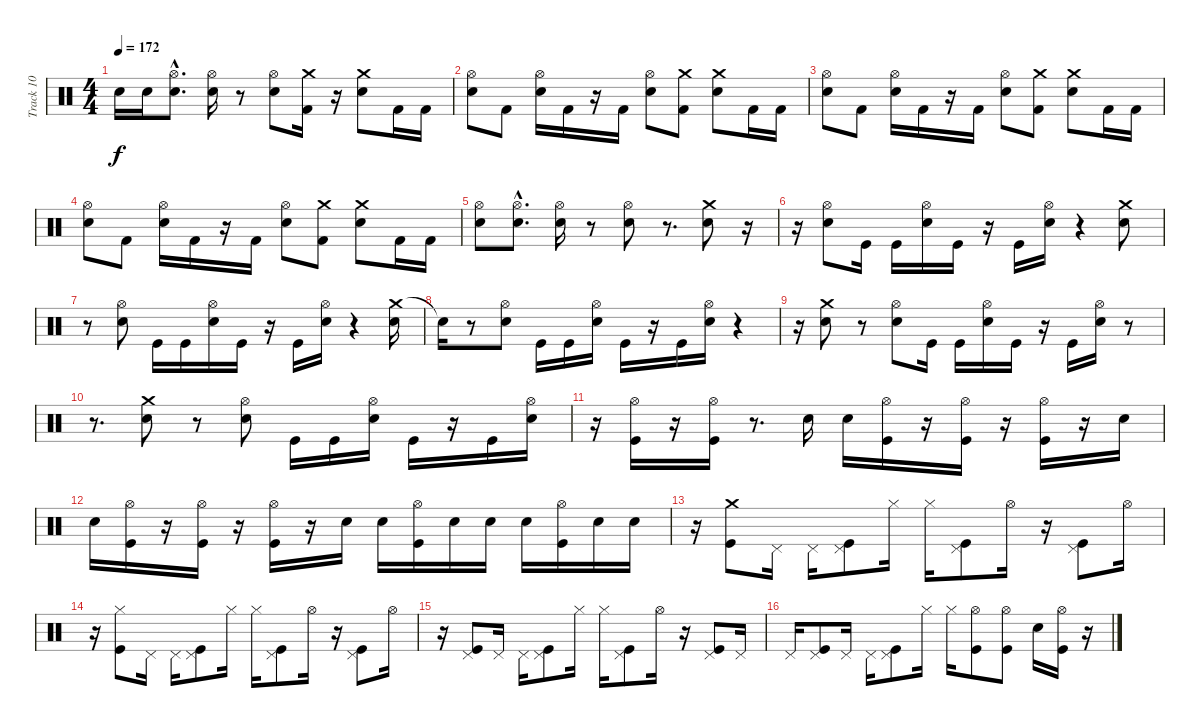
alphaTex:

\track ("Track 10" "Track 10") {instrument percussion}
\staff {score}
\articulation defaults
\ts (4 4)
\tempo 172
\clef neutral
\ks c "Electric Snare (hit)".16{dy f} "Electric Snare (hit)".16
("Hi-Hat (open)" "Electric Snare (hit)"{hac}).8{d} ("Hi-Hat (open)" "Electric Snare (hit)").16 r.8 ("Hi-Hat (open)" "Electric Snare (hit)").8 ("Crash medium (hit)" "Kick (hit) 2").16 r.16 ("Crash medium (hit)" "Electric Snare (hit)").8 "Kick (hit) 2".16 "Kick (hit) 2".16 |
("Hi-Hat (open)" "Electric Snare (hit)").8 "Kick (hit) 2".8 ("Hi-Hat (open)" "Electric Snare (hit)").16 "Kick (hit) 2".16 r.16 "Kick (hit) 2".16 ("Hi-Hat (open)" "Electric Snare (hit)").8 ("Crash medium (hit)" "Kick (hit) 2").8 ("Crash medium (hit)" "Electric Snare (hit)").8 "Kick (hit) 2".16 "Kick (hit) 2".16 |
("Hi-Hat (open)" "Electric Snare (hit)").8 "Kick (hit) 2".8 ("Hi-Hat (open)" "Electric Snare (hit)").16 "Kick (hit) 2".16 r.16 "Kick (hit) 2".16 ("Hi-Hat (open)" "Electric Snare (hit)").8 ("Crash medium (hit)" "Kick (hit) 2").8 ("Crash medium (hit)" "Electric Snare (hit)").8 "Kick (hit) 2".16 "Kick (hit) 2".16 |
("Hi-Hat (open)" "Electric Snare (hit)").8 "Kick (hit) 2".8 ("Hi-Hat (open)" "Electric Snare (hit)").16 "Kick (hit) 2".16 r.16 "Kick (hit) 2".16 ("Hi-Hat (open)" "Electric Snare (hit)").8 ("Crash medium (hit)" "Kick (hit) 2").8 ("Crash medium (hit)" "Electric Snare (hit)").8 "Kick (hit) 2".16 "Kick (hit) 2".16 |
("Hi-Hat (open)" "Electric Snare (hit)").8 ("Hi-Hat (open)" "Electric Snare (hit)"{hac}).8{d} ("Hi-Hat (open)" "Electric Snare (hit)").16 r.8 ("Hi-Hat (open)" "Electric Snare (hit)").8 r.8{d} ("Crash medium (hit)" "Electric Snare (hit)").8 r.16 |
r.16 ("Hi-Hat (open)" "Electric Snare (hit)").8 "Kick (hit)".16 "Kick (hit)".16 ("Hi-Hat (open)" "Electric Snare (hit)").16 "Kick (hit)".16 r.16 "Kick (hit)".16 ("Hi-Hat (open)" "Electric Snare (hit)").16 r.4 ("Crash medium (hit)" "Electric Snare (hit)").8 |
r.8 ("Hi-Hat (open)" "Electric Snare (hit)").8 "Kick (hit)".16 "Kick (hit)".16 ("Hi-Hat (open)" "Electric Snare (hit)").16 "Kick (hit)".16 r.16 "Kick (hit)".16 ("Hi-Hat (open)" "Electric Snare (hit)").16 r.4 ("Crash medium (hit)" "Electric Snare (hit)").16 |
"Snare (hit)"{t}.16 r.8 ("Hi-Hat (open)" "Electric Snare (hit)").8 "Kick (hit)".16 "Kick (hit)".16 ("Hi-Hat (open)" "Electric Snare (hit)").16 "Kick (hit)".16 r.16 "Kick (hit)".16 ("Hi-Hat (open)" "Electric Snare (hit)").16 r.4 |
r.16 ("Crash medium (hit)" "Electric Snare (hit)").8 r.8 ("Hi-Hat (open)" "Electric Snare (hit)").8 "Kick (hit)".16 "Kick (hit)".16 ("Hi-Hat (open)" "Electric Snare (hit)").16 "Kick (hit)".16 r.16 "Kick (hit)".16 ("Hi-Hat (open)" "Electric Snare (hit)").16 r.8 |
r.8{d} ("Crash medium (hit)" "Electric Snare (hit)").8 r.8 ("Hi-Hat (open)" "Electric Snare (hit)").8 "Kick (hit)".16 "Kick (hit)".16 ("Hi-Hat (open)" "Electric Snare (hit)").16 "Kick (hit)".16 r.16 "Kick (hit)".16 ("Hi-Hat (open)" "Electric Snare (hit)").16 |
r.16 ("Hi-Hat (open)" "Kick (hit)").16 r.16 ("Hi-Hat (open)" "Kick (hit)").16 r.8{d} "Electric Snare (hit)".16 "Electric Snare (hit)".16 ("Hi-Hat (open)" "Kick (hit)").16 r.16 ("Hi-Hat (open)" "Kick (hit)").16 r.16 ("Hi-Hat (open)" "Kick (hit)").16 r.16 "Electric Snare (hit)".16 |
"Electric Snare (hit)".16 ("Hi-Hat (open)" "Kick (hit)").16 r.16 ("Hi-Hat (open)" "Kick (hit)").16 r.16 ("Hi-Hat (open)" "Kick (hit)").16 r.16 "Electric Snare (hit)".16 "Electric Snare (hit)".16 ("Hi-Hat (open)" "Kick (hit)").16 "Electric Snare (hit)".16 "Electric Snare (hit)".16 "Electric Snare (hit)".16 ("Hi-Hat (open)" "Kick (hit)").16 "Electric Snare (hit)".16 "Electric Snare (hit)".16 |
r.16 ("Crash medium (hit)" "Kick (hit)").8 "Pedal Hi-Hat (hit)".16 "Pedal Hi-Hat (hit)".16 ("Pedal Hi-Hat (hit)" "Kick (hit)").8 "Hi-Hat (closed)".16 "Hi-Hat (closed)".16 ("Pedal Hi-Hat (hit)" "Kick (hit)").8 "Hi-Hat (open)".16 r.16 ("Pedal Hi-Hat (hit)" "Kick (hit)").8 "Hi-Hat (open)".16 |
r.16 ("Hi-Hat (closed)" "Kick (hit)").8 "Pedal Hi-Hat (hit)".16 "Pedal Hi-Hat (hit)".16 ("Pedal Hi-Hat (hit)" "Kick (hit)").8 "Hi-Hat (closed)".16 "Hi-Hat (closed)".16 ("Pedal Hi-Hat (hit)" "Kick (hit)").8 "Hi-Hat (open)".16 r.16 ("Pedal Hi-Hat (hit)" "Kick (hit)").8 "Hi-Hat (open)".16 |
r.16 ("Pedal Hi-Hat (hit)" "Kick (hit)").8 "Pedal Hi-Hat (hit)".16 "Pedal Hi-Hat (hit)".16 ("Pedal Hi-Hat (hit)" "Kick (hit)").8 "Hi-Hat (closed)".16 "Hi-Hat (closed)".16 ("Pedal Hi-Hat (hit)" "Kick (hit)").8 "Hi-Hat (open)".16 r.16 ("Pedal Hi-Hat (hit)" "Kick (hit)").8 "Pedal Hi-Hat (hit)".16 |
"Pedal Hi-Hat (hit)".16 ("Pedal Hi-Hat (hit)" "Kick (hit)").8 "Pedal Hi-Hat (hit)".16 "Pedal Hi-Hat (hit)".16 ("Pedal Hi-Hat (hit)" "Kick (hit)").8 "Hi-Hat (closed)".16 "Hi-Hat (closed)".16 ("Hi-Hat (open)" "Kick (hit)").8 ("Hi-Hat (open)" "Kick (hit)").8 "Electric Snare (hit)".16 ("Hi-Hat (open)" "Kick (hit)").16 r.16
